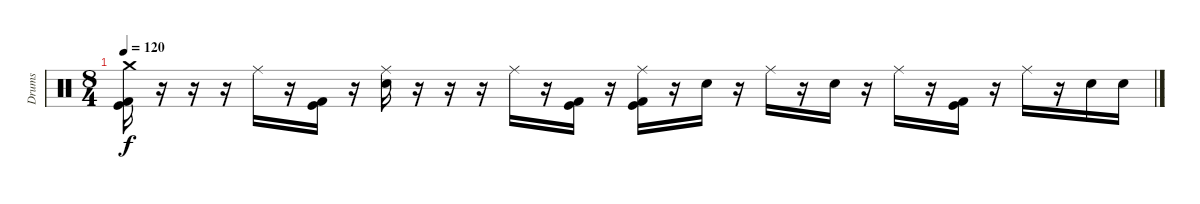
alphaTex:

\track ("Drums" "Drums") {instrument percussion}
\staff {score}
\articulation defaults
\ts (8 4)
\tempo 120
\clef neutral
\ks c
("Crash medium (hit)" "Kick (hit)" "Kick (hit) 2").16{dy f} r.16 r.16 r.16 "Ride (middle)".16 r.16 ("Kick (hit) 2" "Kick (hit)").16 r.16 ("Ride (middle)" "Electric Snare (hit)").16 r.16 r.16 r.16 "Ride (middle)".16 r.16 ("Kick (hit) 2" "Kick (hit)").16 r.16 ("Ride (middle)" "Kick (hit) 2" "Kick (hit)").16 r.16 "Electric Snare (hit)".16 r.16 "Ride (middle)".16 r.16 "Electric Snare (hit)".16 r.16 "Ride (middle)".16 r.16 ("Kick (hit) 2" "Kick (hit)").16 r.16 "Ride (middle)".16 r.16 "Electric Snare (hit)".16 "Electric Snare (hit)".16
